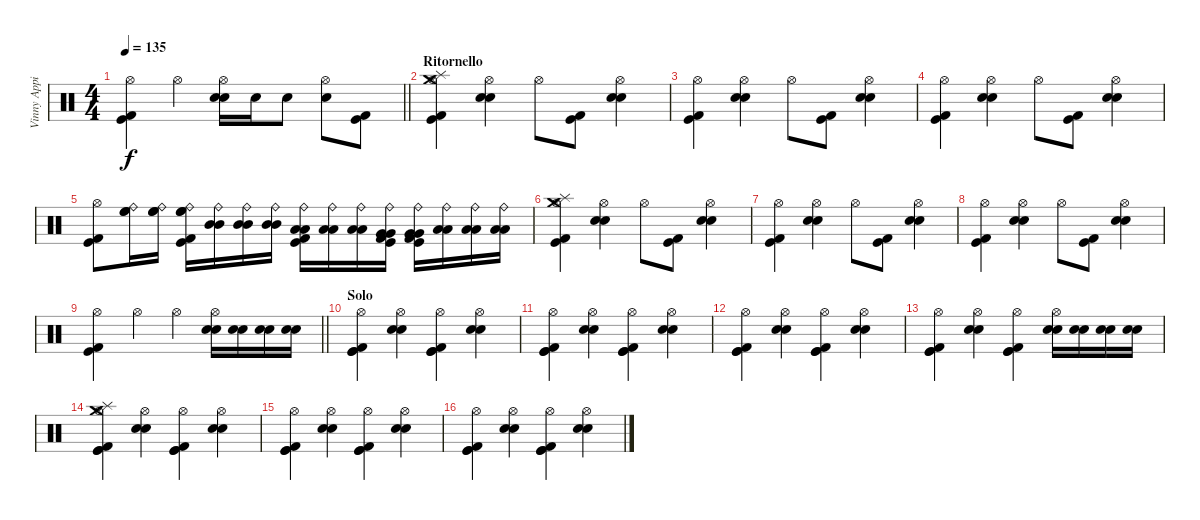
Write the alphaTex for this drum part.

\track ("Vinny Appice" "Vinny Appi") {instrument percussion}
\staff {score}
\articulation defaults
\ts (4 4)
\tempo 135
\clef neutral
\barLineRight lightlight
\ks c
("Hi-Hat (open)" "Kick (hit)" "Kick (hit) 2").4{dy f} "Hi-Hat (open)".4 ("Hi-Hat (open)" "Snare (hit) 2" "Snare (hit) 2").16 "Snare (hit) 2".16 "Snare (hit) 2".8 ("Hi-Hat (open)" "Snare (hit) 2").8 ("Kick (hit)" "Kick (hit) 2").8 |
\section ("" "Ritornello")
("Hi-Hat (open)" "Splash (hit)" "Crash medium (hit)" "Kick (hit)" "Kick (hit) 2").4 ("Hi-Hat (open)" "Snare (hit) 2" "Snare (hit) 2").4 "Hi-Hat (open)".8 ("Kick (hit) 2" "Kick (hit)").8 ("Hi-Hat (open)" "Snare (hit) 2" "Snare (hit) 2").4 |
("Hi-Hat (open)" "Kick (hit) 2" "Kick (hit)").4 ("Hi-Hat (open)" "Snare (hit) 2" "Snare (hit) 2").4 "Hi-Hat (open)".8 ("Kick (hit) 2" "Kick (hit)").8 ("Hi-Hat (open)" "Snare (hit) 2" "Snare (hit) 2").4 |
("Hi-Hat (open)" "Kick (hit) 2" "Kick (hit)").4 ("Hi-Hat (open)" "Snare (hit) 2" "Snare (hit) 2").4 "Hi-Hat (open)".8 ("Kick (hit) 2" "Kick (hit)").8 ("Hi-Hat (open)" "Snare (hit) 2" "Snare (hit) 2").4 |
("Hi-Hat (open)" "Kick (hit) 2" "Kick (hit)").8 ("High Floor Tom (hit)" "High Floor Tom (hit)" "Ride (bell)").16 ("High Floor Tom (hit)" "High Floor Tom (hit)" "Ride (bell)").16 ("Kick (hit) 2" "Kick (hit)" "High Floor Tom (hit)" "High Floor Tom (hit)" "Ride (bell)").16 ("Mid Tom (hit)" "Mid Tom (hit)" "Ride (bell)").16 ("Mid Tom (hit)" "Mid Tom (hit)" "Ride (bell)").16 ("Mid Tom (hit)" "Mid Tom (hit)" "Ride (bell)").16 ("Kick (hit) 2" "Kick (hit)" "Low Tom (hit)" "Low Tom (hit)" "Ride (bell)").16 ("Low Tom (hit)" "Low Tom (hit)" "Ride (bell)").16 ("Low Tom (hit)" "Low Tom (hit)" "Ride (bell)").16 ("Kick (hit) 2" "Kick (hit)" "Very Low Tom (hit)" "Very Low Tom (hit)" "Ride (bell)").16 ("Kick (hit) 2" "Kick (hit)" "Very Low Tom (hit)" "Very Low Tom (hit)" "Ride (bell)").16 ("Low Floor Tom (hit)" "Low Floor Tom (hit)" "Ride (bell)").16 ("Low Floor Tom (hit)" "Low Floor Tom (hit)" "Ride (bell)").16 ("Low Floor Tom (hit)" "Low Floor Tom (hit)" "Ride (bell)").16 |
("Hi-Hat (open)" "Splash (hit)" "Crash medium (hit)" "Kick (hit)" "Kick (hit) 2").4 ("Hi-Hat (open)" "Snare (hit) 2" "Snare (hit) 2").4 "Hi-Hat (open)".8 ("Kick (hit) 2" "Kick (hit)").8 ("Hi-Hat (open)" "Snare (hit) 2" "Snare (hit) 2").4 |
("Hi-Hat (open)" "Kick (hit) 2" "Kick (hit)").4 ("Hi-Hat (open)" "Snare (hit) 2" "Snare (hit) 2").4 "Hi-Hat (open)".8 ("Kick (hit) 2" "Kick (hit)").8 ("Hi-Hat (open)" "Snare (hit) 2" "Snare (hit) 2").4 |
("Hi-Hat (open)" "Kick (hit) 2" "Kick (hit)").4 ("Hi-Hat (open)" "Snare (hit) 2" "Snare (hit) 2").4 "Hi-Hat (open)".8 ("Kick (hit) 2" "Kick (hit)").8 ("Hi-Hat (open)" "Snare (hit) 2" "Snare (hit) 2").4 |
\barLineRight lightlight
("Hi-Hat (open)" "Kick (hit) 2" "Kick (hit)").4 "Hi-Hat (open)".4 "Hi-Hat (open)".4 ("Hi-Hat (open)" "Snare (hit) 2" "Snare (hit) 2").16 ("Snare (hit) 2" "Snare (hit) 2").16 ("Snare (hit) 2" "Snare (hit) 2").16 ("Snare (hit) 2" "Snare (hit) 2").16 |
\section ("" "Solo")
("Hi-Hat (open)" "Kick (hit)" "Kick (hit) 2" "Kick (hit)").4 ("Hi-Hat (open)" "Snare (hit) 2" "Snare (hit) 2").4 ("Hi-Hat (open)" "Kick (hit)" "Kick (hit) 2" "Kick (hit)").4 ("Hi-Hat (open)" "Snare (hit) 2" "Snare (hit) 2").4 |
("Hi-Hat (open)" "Kick (hit)" "Kick (hit) 2" "Kick (hit)").4 ("Hi-Hat (open)" "Snare (hit) 2" "Snare (hit) 2").4 ("Hi-Hat (open)" "Kick (hit)" "Kick (hit) 2" "Kick (hit)").4 ("Hi-Hat (open)" "Snare (hit) 2" "Snare (hit) 2").4 |
("Hi-Hat (open)" "Kick (hit)" "Kick (hit) 2" "Kick (hit)").4 ("Hi-Hat (open)" "Snare (hit) 2" "Snare (hit) 2").4 ("Hi-Hat (open)" "Kick (hit)" "Kick (hit) 2" "Kick (hit)").4 ("Hi-Hat (open)" "Snare (hit) 2" "Snare (hit) 2").4 |
("Hi-Hat (open)" "Kick (hit)" "Kick (hit) 2" "Kick (hit)").4 ("Hi-Hat (open)" "Snare (hit) 2" "Snare (hit) 2").4 ("Hi-Hat (open)" "Kick (hit)" "Kick (hit) 2" "Kick (hit)").4 ("Hi-Hat (open)" "Snare (hit) 2" "Snare (hit) 2").16 ("Snare (hit) 2" "Snare (hit) 2").16 ("Snare (hit) 2" "Snare (hit) 2").16 ("Snare (hit) 2" "Snare (hit) 2").16 |
("Hi-Hat (open)" "Kick (hit)" "Kick (hit) 2" "Kick (hit)" "Splash (hit)" "Crash medium (hit)").4 ("Hi-Hat (open)" "Snare (hit) 2" "Snare (hit) 2").4 ("Hi-Hat (open)" "Kick (hit)" "Kick (hit) 2" "Kick (hit)").4 ("Hi-Hat (open)" "Snare (hit) 2" "Snare (hit) 2").4 |
("Hi-Hat (open)" "Kick (hit)" "Kick (hit) 2" "Kick (hit)").4 ("Hi-Hat (open)" "Snare (hit) 2" "Snare (hit) 2").4 ("Hi-Hat (open)" "Kick (hit)" "Kick (hit) 2" "Kick (hit)").4 ("Hi-Hat (open)" "Snare (hit) 2" "Snare (hit) 2").4 |
("Hi-Hat (open)" "Kick (hit)" "Kick (hit) 2" "Kick (hit)").4 ("Hi-Hat (open)" "Snare (hit) 2" "Snare (hit) 2").4 ("Hi-Hat (open)" "Kick (hit)" "Kick (hit) 2" "Kick (hit)").4 ("Hi-Hat (open)" "Snare (hit) 2" "Snare (hit) 2").4
